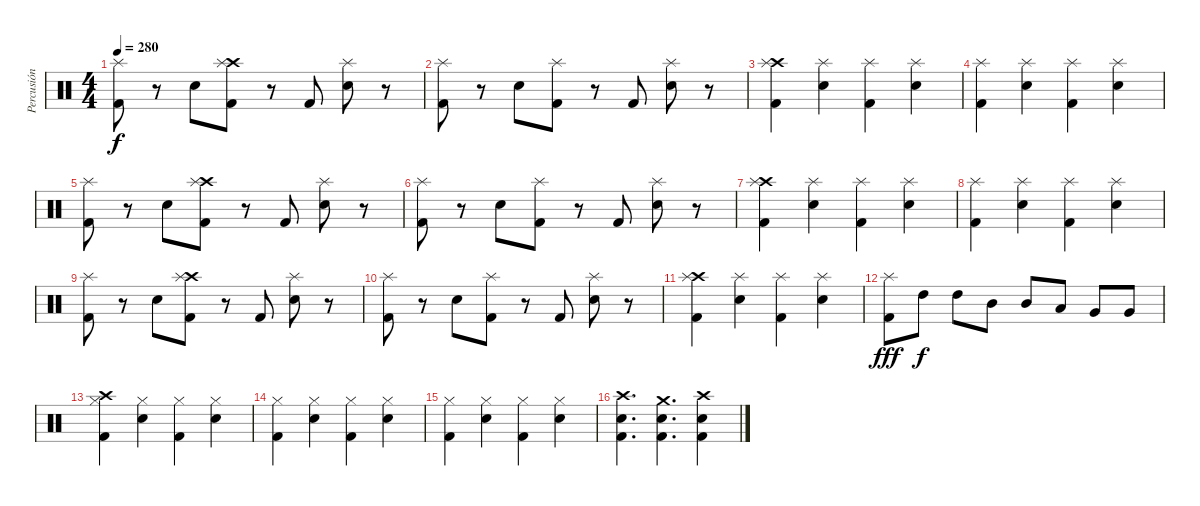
\track ("Percusión" "Percusión") {instrument percussion}
\staff {score}
\articulation defaults
\ts (4 4)
\tempo 280
\clef neutral
\ks c
("Splash (hit)" "Kick (hit) 2").8{dy f} r.8 "Snare (hit) 2".8 ("Crash high (hit)" "Splash (hit)" "Kick (hit) 2").8 r.8 "Kick (hit) 2".8 ("Snare (hit) 2" "Splash (hit)").8 r.8 |
("Splash (hit)" "Kick (hit) 2").8 r.8 "Snare (hit) 2".8 ("Splash (hit)" "Kick (hit) 2").8 r.8 "Kick (hit) 2".8 ("Snare (hit) 2" "Splash (hit)").8 r.8 |
("Crash high (hit)" "Splash (hit)" "Kick (hit) 2").4 ("Snare (hit) 2" "Splash (hit)").4 ("Splash (hit)" "Kick (hit) 2").4 ("Snare (hit) 2" "Splash (hit)").4 |
("Splash (hit)" "Kick (hit) 2").4 ("Snare (hit) 2" "Splash (hit)").4 ("Splash (hit)" "Kick (hit) 2").4 ("Snare (hit) 2" "Splash (hit)").4 |
("Splash (hit)" "Kick (hit) 2").8 r.8 "Snare (hit) 2".8 ("Crash high (hit)" "Splash (hit)" "Kick (hit) 2").8 r.8 "Kick (hit) 2".8 ("Snare (hit) 2" "Splash (hit)").8 r.8 |
("Splash (hit)" "Kick (hit) 2").8 r.8 "Snare (hit) 2".8 ("Splash (hit)" "Kick (hit) 2").8 r.8 "Kick (hit) 2".8 ("Snare (hit) 2" "Splash (hit)").8 r.8 |
("Crash high (hit)" "Splash (hit)" "Kick (hit) 2").4 ("Snare (hit) 2" "Splash (hit)").4 ("Splash (hit)" "Kick (hit) 2").4 ("Snare (hit) 2" "Splash (hit)").4 |
("Splash (hit)" "Kick (hit) 2").4 ("Snare (hit) 2" "Splash (hit)").4 ("Splash (hit)" "Kick (hit) 2").4 ("Snare (hit) 2" "Splash (hit)").4 |
("Splash (hit)" "Kick (hit) 2").8 r.8 "Snare (hit) 2".8 ("Crash high (hit)" "Splash (hit)" "Kick (hit) 2").8 r.8 "Kick (hit) 2".8 ("Snare (hit) 2" "Splash (hit)").8 r.8 |
("Splash (hit)" "Kick (hit) 2").8 r.8 "Snare (hit) 2".8 ("Splash (hit)" "Kick (hit) 2").8 r.8 "Kick (hit) 2".8 ("Snare (hit) 2" "Splash (hit)").8 r.8 |
("Crash high (hit)" "Splash (hit)" "Kick (hit) 2").4 ("Snare (hit) 2" "Splash (hit)").4 ("Splash (hit)" "Kick (hit) 2").4 ("Snare (hit) 2" "Splash (hit)").4 |
("Splash (hit)" "Kick (hit) 2").8{dy fff} "High Tom (hit)".8{dy f} "High Tom (hit)".8 "Mid Tom (hit)".8 "Mid Tom (hit)".8 "Low Tom (hit)".8 "Very Low Tom (hit)".8 "Very Low Tom (hit)".8 |
("Crash high (hit)" "Hi-Hat (closed)" "Kick (hit) 2").4 ("Snare (hit) 2" "Hi-Hat (closed)").4 ("Hi-Hat (closed)" "Kick (hit) 2").4 ("Snare (hit) 2" "Hi-Hat (closed)").4 |
("Hi-Hat (closed)" "Kick (hit) 2").4 ("Snare (hit) 2" "Hi-Hat (closed)").4 ("Hi-Hat (closed)" "Kick (hit) 2").4 ("Snare (hit) 2" "Hi-Hat (closed)").4 |
("Hi-Hat (closed)" "Kick (hit) 2").4 ("Snare (hit) 2" "Hi-Hat (closed)").4 ("Hi-Hat (closed)" "Kick (hit) 2").4 ("Snare (hit) 2" "Hi-Hat (closed)").4 |
("Crash high (hit)" "Snare (hit) 2" "Kick (hit) 2").4{d} ("Crash medium (hit)" "Snare (hit) 2" "Kick (hit) 2").4{d} ("Crash high (hit)" "Snare (hit) 2" "Kick (hit) 2").4
